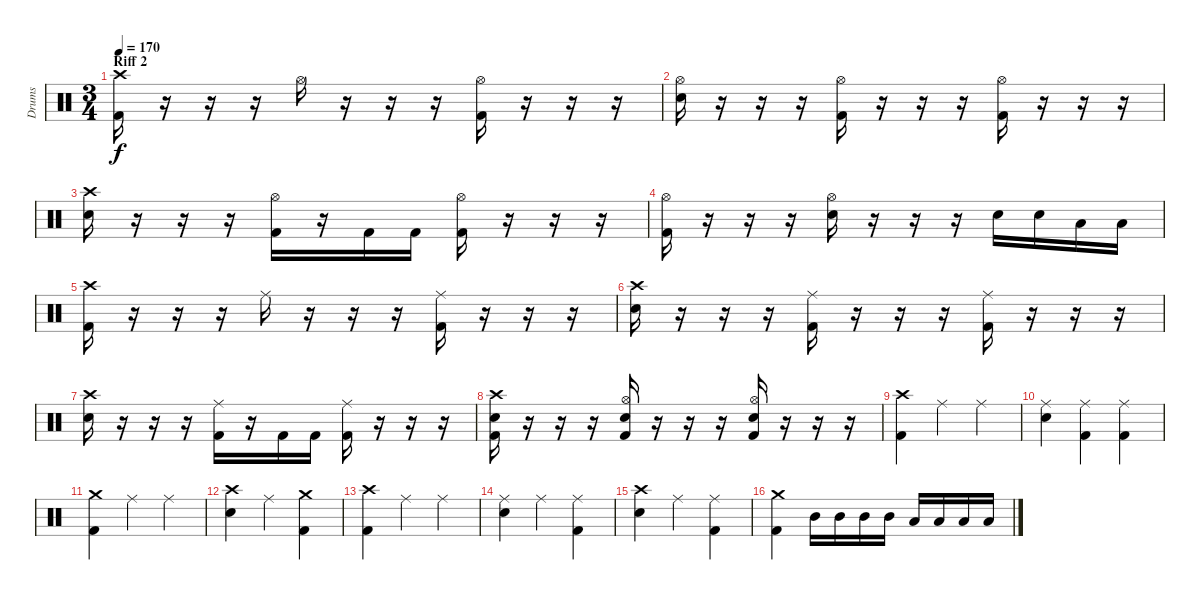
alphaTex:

\track ("Drums" "Drums") {instrument percussion}
\staff {score}
\articulation defaults
\ts (3 4)
\section ("" "Riff 2")
\tempo 170
\clef neutral
\ks c
("Crash high (hit)" "Kick (hit) 2").16{dy f} r.16 r.16 r.16 "Hi-Hat (open)".16 r.16 r.16 r.16 ("Hi-Hat (open)" "Kick (hit) 2").16 r.16 r.16 r.16 |
("Hi-Hat (open)" "Electric Snare (hit)").16 r.16 r.16 r.16 ("Hi-Hat (open)" "Kick (hit) 2").16 r.16 r.16 r.16 ("Hi-Hat (open)" "Kick (hit) 2").16 r.16 r.16 r.16 |
("Crash high (hit)" "Electric Snare (hit)").16 r.16 r.16 r.16 ("Hi-Hat (open)" "Kick (hit) 2").16 r.16 "Kick (hit) 2".16 "Kick (hit) 2".16 ("Hi-Hat (open)" "Kick (hit) 2").16 r.16 r.16 r.16 |
("Hi-Hat (open)" "Kick (hit) 2").16 r.16 r.16 r.16 ("Hi-Hat (open)" "Electric Snare (hit)").16 r.16 r.16 r.16 "Electric Snare (hit)".16 "Electric Snare (hit)".16 "Low Tom (hit)".16 "Low Tom (hit)".16 |
("Crash high (hit)" "Kick (hit) 2").16 r.16 r.16 r.16 "Ride (middle)".16 r.16 r.16 r.16 ("Ride (middle)" "Kick (hit) 2").16 r.16 r.16 r.16 |
("Crash high (hit)" "Electric Snare (hit)").16 r.16 r.16 r.16 ("Ride (middle)" "Kick (hit) 2").16 r.16 r.16 r.16 ("Ride (middle)" "Kick (hit) 2").16 r.16 r.16 r.16 |
("Crash high (hit)" "Electric Snare (hit)").16 r.16 r.16 r.16 ("Ride (middle)" "Kick (hit) 2").16 r.16 "Kick (hit) 2".16 "Kick (hit) 2".16 ("Ride (middle)" "Kick (hit) 2").16 r.16 r.16 r.16 |
("Crash high (hit)" "Electric Snare (hit)" "Kick (hit) 2").16 r.16 r.16 r.16 ("Hi-Hat (open)" "Electric Snare (hit)" "Kick (hit) 2").16 r.16 r.16 r.16 ("Hi-Hat (open)" "Electric Snare (hit)" "Kick (hit) 2").16 r.16 r.16 r.16 |
("Crash high (hit)" "Kick (hit) 2").4 "Ride (middle)".4 "Ride (middle)".4 |
("Ride (middle)" "Electric Snare (hit)").4 ("Ride (middle)" "Kick (hit) 2").4 ("Ride (middle)" "Kick (hit) 2").4 |
("Crash medium (hit)" "Kick (hit) 2").4 "Ride (middle)".4 "Ride (middle)".4 |
("Crash high (hit)" "Electric Snare (hit)").4 "Ride (middle)".4 ("Crash medium (hit)" "Kick (hit) 2").4 |
("Crash high (hit)" "Kick (hit) 2").4 "Ride (middle)".4 "Ride (middle)".4 |
("Ride (middle)" "Electric Snare (hit)").4 "Ride (middle)".4 ("Ride (middle)" "Kick (hit) 2").4 |
("Crash high (hit)" "Electric Snare (hit)").4 "Ride (middle)".4 ("Ride (middle)" "Kick (hit) 2").4 |
("Crash medium (hit)" "Kick (hit) 2").4 "Mid Tom (hit)".16 "Mid Tom (hit)".16 "Mid Tom (hit)".16 "Mid Tom (hit)".16 "Low Tom (hit)".16 "Low Tom (hit)".16 "Low Tom (hit)".16 "Low Tom (hit)".16
